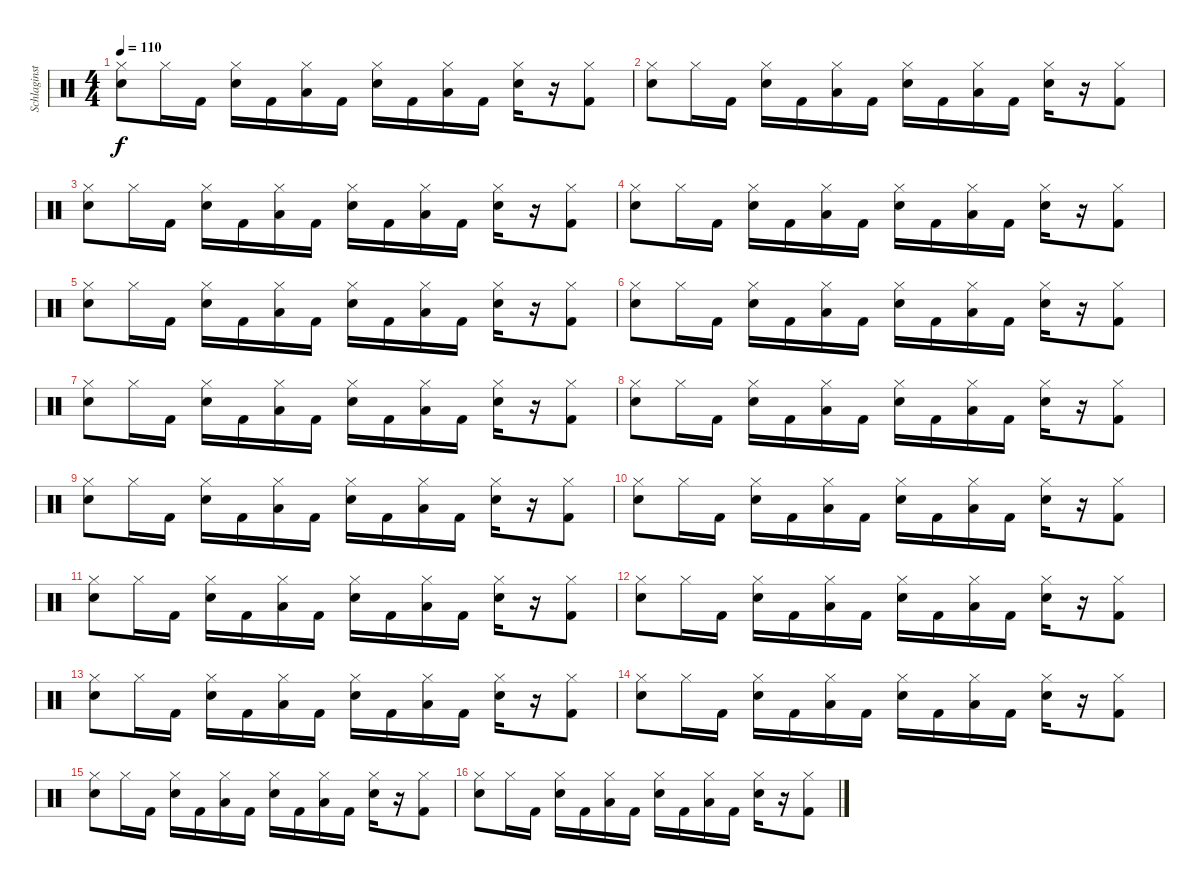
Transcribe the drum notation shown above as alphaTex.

\track ("Schlaginstrumente - Auswahl" "Schlaginst") {instrument percussion}
\staff {score}
\articulation defaults
\ts (4 4)
\tempo 110
\clef neutral
\ks c
("Hi-Hat (closed)" "Snare (hit) 2").8{dy f} "Hi-Hat (closed)".16 "Kick (hit) 2".16 ("Hi-Hat (closed)" "Snare (hit) 2").16 "Kick (hit) 2".16 ("Hi-Hat (closed)" "Low Floor Tom (hit)").16 "Kick (hit) 2".16 ("Hi-Hat (closed)" "Snare (hit) 2").16 "Kick (hit) 2".16 ("Hi-Hat (closed)" "Low Floor Tom (hit)").16 "Kick (hit) 2".16 ("Hi-Hat (closed)" "Snare (hit) 2").16 r.16 ("Hi-Hat (closed)" "Kick (hit) 2").8 |
("Hi-Hat (closed)" "Snare (hit) 2").8 "Hi-Hat (closed)".16 "Kick (hit) 2".16 ("Hi-Hat (closed)" "Snare (hit) 2").16 "Kick (hit) 2".16 ("Hi-Hat (closed)" "Low Floor Tom (hit)").16 "Kick (hit) 2".16 ("Hi-Hat (closed)" "Snare (hit) 2").16 "Kick (hit) 2".16 ("Hi-Hat (closed)" "Low Floor Tom (hit)").16 "Kick (hit) 2".16 ("Hi-Hat (closed)" "Snare (hit) 2").16 r.16 ("Hi-Hat (closed)" "Kick (hit) 2").8 |
("Hi-Hat (closed)" "Snare (hit) 2").8 "Hi-Hat (closed)".16 "Kick (hit) 2".16 ("Hi-Hat (closed)" "Snare (hit) 2").16 "Kick (hit) 2".16 ("Hi-Hat (closed)" "Low Floor Tom (hit)").16 "Kick (hit) 2".16 ("Hi-Hat (closed)" "Snare (hit) 2").16 "Kick (hit) 2".16 ("Hi-Hat (closed)" "Low Floor Tom (hit)").16 "Kick (hit) 2".16 ("Hi-Hat (closed)" "Snare (hit) 2").16 r.16 ("Hi-Hat (closed)" "Kick (hit) 2").8 |
("Hi-Hat (closed)" "Snare (hit) 2").8 "Hi-Hat (closed)".16 "Kick (hit) 2".16 ("Hi-Hat (closed)" "Snare (hit) 2").16 "Kick (hit) 2".16 ("Hi-Hat (closed)" "Low Floor Tom (hit)").16 "Kick (hit) 2".16 ("Hi-Hat (closed)" "Snare (hit) 2").16 "Kick (hit) 2".16 ("Hi-Hat (closed)" "Low Floor Tom (hit)").16 "Kick (hit) 2".16 ("Hi-Hat (closed)" "Snare (hit) 2").16 r.16 ("Hi-Hat (closed)" "Kick (hit) 2").8 |
("Hi-Hat (closed)" "Snare (hit) 2").8 "Hi-Hat (closed)".16 "Kick (hit) 2".16 ("Hi-Hat (closed)" "Snare (hit) 2").16 "Kick (hit) 2".16 ("Hi-Hat (closed)" "Low Floor Tom (hit)").16 "Kick (hit) 2".16 ("Hi-Hat (closed)" "Snare (hit) 2").16 "Kick (hit) 2".16 ("Hi-Hat (closed)" "Low Floor Tom (hit)").16 "Kick (hit) 2".16 ("Hi-Hat (closed)" "Snare (hit) 2").16 r.16 ("Hi-Hat (closed)" "Kick (hit) 2").8 |
("Hi-Hat (closed)" "Snare (hit) 2").8 "Hi-Hat (closed)".16 "Kick (hit) 2".16 ("Hi-Hat (closed)" "Snare (hit) 2").16 "Kick (hit) 2".16 ("Hi-Hat (closed)" "Low Floor Tom (hit)").16 "Kick (hit) 2".16 ("Hi-Hat (closed)" "Snare (hit) 2").16 "Kick (hit) 2".16 ("Hi-Hat (closed)" "Low Floor Tom (hit)").16 "Kick (hit) 2".16 ("Hi-Hat (closed)" "Snare (hit) 2").16 r.16 ("Hi-Hat (closed)" "Kick (hit) 2").8 |
("Hi-Hat (closed)" "Snare (hit) 2").8 "Hi-Hat (closed)".16 "Kick (hit) 2".16 ("Hi-Hat (closed)" "Snare (hit) 2").16 "Kick (hit) 2".16 ("Hi-Hat (closed)" "Low Floor Tom (hit)").16 "Kick (hit) 2".16 ("Hi-Hat (closed)" "Snare (hit) 2").16 "Kick (hit) 2".16 ("Hi-Hat (closed)" "Low Floor Tom (hit)").16 "Kick (hit) 2".16 ("Hi-Hat (closed)" "Snare (hit) 2").16 r.16 ("Hi-Hat (closed)" "Kick (hit) 2").8 |
("Hi-Hat (closed)" "Snare (hit) 2").8 "Hi-Hat (closed)".16 "Kick (hit) 2".16 ("Hi-Hat (closed)" "Snare (hit) 2").16 "Kick (hit) 2".16 ("Hi-Hat (closed)" "Low Floor Tom (hit)").16 "Kick (hit) 2".16 ("Hi-Hat (closed)" "Snare (hit) 2").16 "Kick (hit) 2".16 ("Hi-Hat (closed)" "Low Floor Tom (hit)").16 "Kick (hit) 2".16 ("Hi-Hat (closed)" "Snare (hit) 2").16 r.16 ("Hi-Hat (closed)" "Kick (hit) 2").8 |
("Hi-Hat (closed)" "Snare (hit) 2").8 "Hi-Hat (closed)".16 "Kick (hit) 2".16 ("Hi-Hat (closed)" "Snare (hit) 2").16 "Kick (hit) 2".16 ("Hi-Hat (closed)" "Low Floor Tom (hit)").16 "Kick (hit) 2".16 ("Hi-Hat (closed)" "Snare (hit) 2").16 "Kick (hit) 2".16 ("Hi-Hat (closed)" "Low Floor Tom (hit)").16 "Kick (hit) 2".16 ("Hi-Hat (closed)" "Snare (hit) 2").16 r.16 ("Hi-Hat (closed)" "Kick (hit) 2").8 |
("Hi-Hat (closed)" "Snare (hit) 2").8 "Hi-Hat (closed)".16 "Kick (hit) 2".16 ("Hi-Hat (closed)" "Snare (hit) 2").16 "Kick (hit) 2".16 ("Hi-Hat (closed)" "Low Floor Tom (hit)").16 "Kick (hit) 2".16 ("Hi-Hat (closed)" "Snare (hit) 2").16 "Kick (hit) 2".16 ("Hi-Hat (closed)" "Low Floor Tom (hit)").16 "Kick (hit) 2".16 ("Hi-Hat (closed)" "Snare (hit) 2").16 r.16 ("Hi-Hat (closed)" "Kick (hit) 2").8 |
("Hi-Hat (closed)" "Snare (hit) 2").8 "Hi-Hat (closed)".16 "Kick (hit) 2".16 ("Hi-Hat (closed)" "Snare (hit) 2").16 "Kick (hit) 2".16 ("Hi-Hat (closed)" "Low Floor Tom (hit)").16 "Kick (hit) 2".16 ("Hi-Hat (closed)" "Snare (hit) 2").16 "Kick (hit) 2".16 ("Hi-Hat (closed)" "Low Floor Tom (hit)").16 "Kick (hit) 2".16 ("Hi-Hat (closed)" "Snare (hit) 2").16 r.16 ("Hi-Hat (closed)" "Kick (hit) 2").8 |
("Hi-Hat (closed)" "Snare (hit) 2").8 "Hi-Hat (closed)".16 "Kick (hit) 2".16 ("Hi-Hat (closed)" "Snare (hit) 2").16 "Kick (hit) 2".16 ("Hi-Hat (closed)" "Low Floor Tom (hit)").16 "Kick (hit) 2".16 ("Hi-Hat (closed)" "Snare (hit) 2").16 "Kick (hit) 2".16 ("Hi-Hat (closed)" "Low Floor Tom (hit)").16 "Kick (hit) 2".16 ("Hi-Hat (closed)" "Snare (hit) 2").16 r.16 ("Hi-Hat (closed)" "Kick (hit) 2").8 |
("Hi-Hat (closed)" "Snare (hit) 2").8 "Hi-Hat (closed)".16 "Kick (hit) 2".16 ("Hi-Hat (closed)" "Snare (hit) 2").16 "Kick (hit) 2".16 ("Hi-Hat (closed)" "Low Floor Tom (hit)").16 "Kick (hit) 2".16 ("Hi-Hat (closed)" "Snare (hit) 2").16 "Kick (hit) 2".16 ("Hi-Hat (closed)" "Low Floor Tom (hit)").16 "Kick (hit) 2".16 ("Hi-Hat (closed)" "Snare (hit) 2").16 r.16 ("Hi-Hat (closed)" "Kick (hit) 2").8 |
("Hi-Hat (closed)" "Snare (hit) 2").8 "Hi-Hat (closed)".16 "Kick (hit) 2".16 ("Hi-Hat (closed)" "Snare (hit) 2").16 "Kick (hit) 2".16 ("Hi-Hat (closed)" "Low Floor Tom (hit)").16 "Kick (hit) 2".16 ("Hi-Hat (closed)" "Snare (hit) 2").16 "Kick (hit) 2".16 ("Hi-Hat (closed)" "Low Floor Tom (hit)").16 "Kick (hit) 2".16 ("Hi-Hat (closed)" "Snare (hit) 2").16 r.16 ("Hi-Hat (closed)" "Kick (hit) 2").8 |
("Hi-Hat (closed)" "Snare (hit) 2").8 "Hi-Hat (closed)".16 "Kick (hit) 2".16 ("Hi-Hat (closed)" "Snare (hit) 2").16 "Kick (hit) 2".16 ("Hi-Hat (closed)" "Low Floor Tom (hit)").16 "Kick (hit) 2".16 ("Hi-Hat (closed)" "Snare (hit) 2").16 "Kick (hit) 2".16 ("Hi-Hat (closed)" "Low Floor Tom (hit)").16 "Kick (hit) 2".16 ("Hi-Hat (closed)" "Snare (hit) 2").16 r.16 ("Hi-Hat (closed)" "Kick (hit) 2").8 |
("Hi-Hat (closed)" "Snare (hit) 2").8 "Hi-Hat (closed)".16 "Kick (hit) 2".16 ("Hi-Hat (closed)" "Snare (hit) 2").16 "Kick (hit) 2".16 ("Hi-Hat (closed)" "Low Floor Tom (hit)").16 "Kick (hit) 2".16 ("Hi-Hat (closed)" "Snare (hit) 2").16 "Kick (hit) 2".16 ("Hi-Hat (closed)" "Low Floor Tom (hit)").16 "Kick (hit) 2".16 ("Hi-Hat (closed)" "Snare (hit) 2").16 r.16 ("Hi-Hat (closed)" "Kick (hit) 2").8
